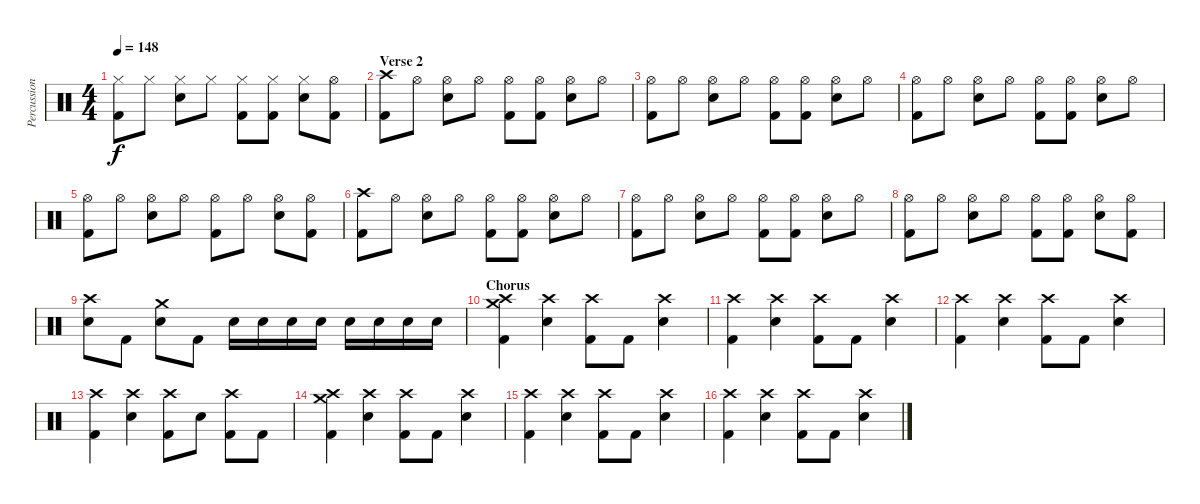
\track ("Percussion" "Percussion") {instrument percussion}
\staff {score}
\articulation defaults
\ts (4 4)
\tempo 148
\clef neutral
\ks c
("Hi-Hat (closed)" "Kick (hit) 2").8{dy f} "Hi-Hat (closed)".8 ("Hi-Hat (closed)" "Snare (hit) 2").8 "Hi-Hat (closed)".8 ("Hi-Hat (closed)" "Kick (hit) 2").8 ("Hi-Hat (closed)" "Kick (hit) 2").8 ("Hi-Hat (closed)" "Snare (hit) 2").8 ("Hi-Hat (open)" "Kick (hit) 2").8 |
\section ("" "Verse 2")
("Crash high (hit)" "Kick (hit) 2").8 "Hi-Hat (open)".8 ("Hi-Hat (open)" "Snare (hit) 2").8 "Hi-Hat (open)".8 ("Hi-Hat (open)" "Kick (hit) 2").8 ("Hi-Hat (open)" "Kick (hit) 2").8 ("Hi-Hat (open)" "Snare (hit) 2").8 "Hi-Hat (open)".8 |
("Hi-Hat (open)" "Kick (hit) 2").8 "Hi-Hat (open)".8 ("Hi-Hat (open)" "Snare (hit) 2").8 "Hi-Hat (open)".8 ("Hi-Hat (open)" "Kick (hit) 2").8 ("Hi-Hat (open)" "Kick (hit) 2").8 ("Hi-Hat (open)" "Snare (hit) 2").8 "Hi-Hat (open)".8 |
("Hi-Hat (open)" "Kick (hit) 2").8 "Hi-Hat (open)".8 ("Hi-Hat (open)" "Snare (hit) 2").8 "Hi-Hat (open)".8 ("Hi-Hat (open)" "Kick (hit) 2").8 ("Hi-Hat (open)" "Kick (hit) 2").8 ("Hi-Hat (open)" "Snare (hit) 2").8 "Hi-Hat (open)".8 |
("Hi-Hat (open)" "Kick (hit) 2").8 "Hi-Hat (open)".8 ("Hi-Hat (open)" "Snare (hit) 2").8 "Hi-Hat (open)".8 ("Hi-Hat (open)" "Kick (hit) 2").8 "Hi-Hat (open)".8 ("Hi-Hat (open)" "Snare (hit) 2").8 ("Hi-Hat (open)" "Kick (hit) 2").8 |
("Crash high (hit)" "Kick (hit) 2").8 "Hi-Hat (open)".8 ("Hi-Hat (open)" "Snare (hit) 2").8 "Hi-Hat (open)".8 ("Hi-Hat (open)" "Kick (hit) 2").8 ("Hi-Hat (open)" "Kick (hit) 2").8 ("Hi-Hat (open)" "Snare (hit) 2").8 "Hi-Hat (open)".8 |
("Hi-Hat (open)" "Kick (hit) 2").8 "Hi-Hat (open)".8 ("Hi-Hat (open)" "Snare (hit) 2").8 "Hi-Hat (open)".8 ("Hi-Hat (open)" "Kick (hit) 2").8 ("Hi-Hat (open)" "Kick (hit) 2").8 ("Hi-Hat (open)" "Snare (hit) 2").8 "Hi-Hat (open)".8 |
("Hi-Hat (open)" "Kick (hit) 2").8 "Hi-Hat (open)".8 ("Hi-Hat (open)" "Snare (hit) 2").8 "Hi-Hat (open)".8 ("Hi-Hat (open)" "Kick (hit) 2").8 ("Hi-Hat (open)" "Kick (hit) 2").8 ("Hi-Hat (open)" "Snare (hit) 2").8 ("Hi-Hat (open)" "Kick (hit) 2").8 |
("Crash high (hit)" "Snare (hit) 2").8 "Kick (hit) 2".8 ("Crash medium (hit)" "Snare (hit) 2").8 "Kick (hit) 2".8 "Snare (hit) 2".16 "Snare (hit) 2".16 "Snare (hit) 2".16 "Snare (hit) 2".16 "Snare (hit) 2".16 "Snare (hit) 2".16 "Snare (hit) 2".16 "Snare (hit) 2".16 |
\section ("" "Chorus")
("Crash high (hit)" "Crash medium (hit)" "Kick (hit) 2").4 ("Crash high (hit)" "Snare (hit) 2").4 ("Crash high (hit)" "Kick (hit) 2").8 "Kick (hit) 2".8 ("Crash high (hit)" "Snare (hit) 2").4 |
("Crash high (hit)" "Kick (hit) 2").4 ("Crash high (hit)" "Snare (hit) 2").4 ("Crash high (hit)" "Kick (hit) 2").8 "Kick (hit) 2".8 ("Crash high (hit)" "Snare (hit) 2").4 |
("Crash high (hit)" "Kick (hit) 2").4 ("Crash high (hit)" "Snare (hit) 2").4 ("Crash high (hit)" "Kick (hit) 2").8 "Kick (hit) 2".8 ("Crash high (hit)" "Snare (hit) 2").4 |
("Crash high (hit)" "Kick (hit) 2").4 ("Crash high (hit)" "Snare (hit) 2").4 ("Crash high (hit)" "Kick (hit) 2").8 "Snare (hit) 2".8 ("Crash high (hit)" "Kick (hit) 2").8 "Kick (hit) 2".8 |
("Crash high (hit)" "Crash medium (hit)" "Kick (hit) 2").4 ("Crash high (hit)" "Snare (hit) 2").4 ("Crash high (hit)" "Kick (hit) 2").8 "Kick (hit) 2".8 ("Crash high (hit)" "Snare (hit) 2").4 |
("Crash high (hit)" "Kick (hit) 2").4 ("Crash high (hit)" "Snare (hit) 2").4 ("Crash high (hit)" "Kick (hit) 2").8 "Kick (hit) 2".8 ("Crash high (hit)" "Snare (hit) 2").4 |
("Crash high (hit)" "Kick (hit) 2").4 ("Crash high (hit)" "Snare (hit) 2").4 ("Crash high (hit)" "Kick (hit) 2").8 "Kick (hit) 2".8 ("Crash high (hit)" "Snare (hit) 2").4
